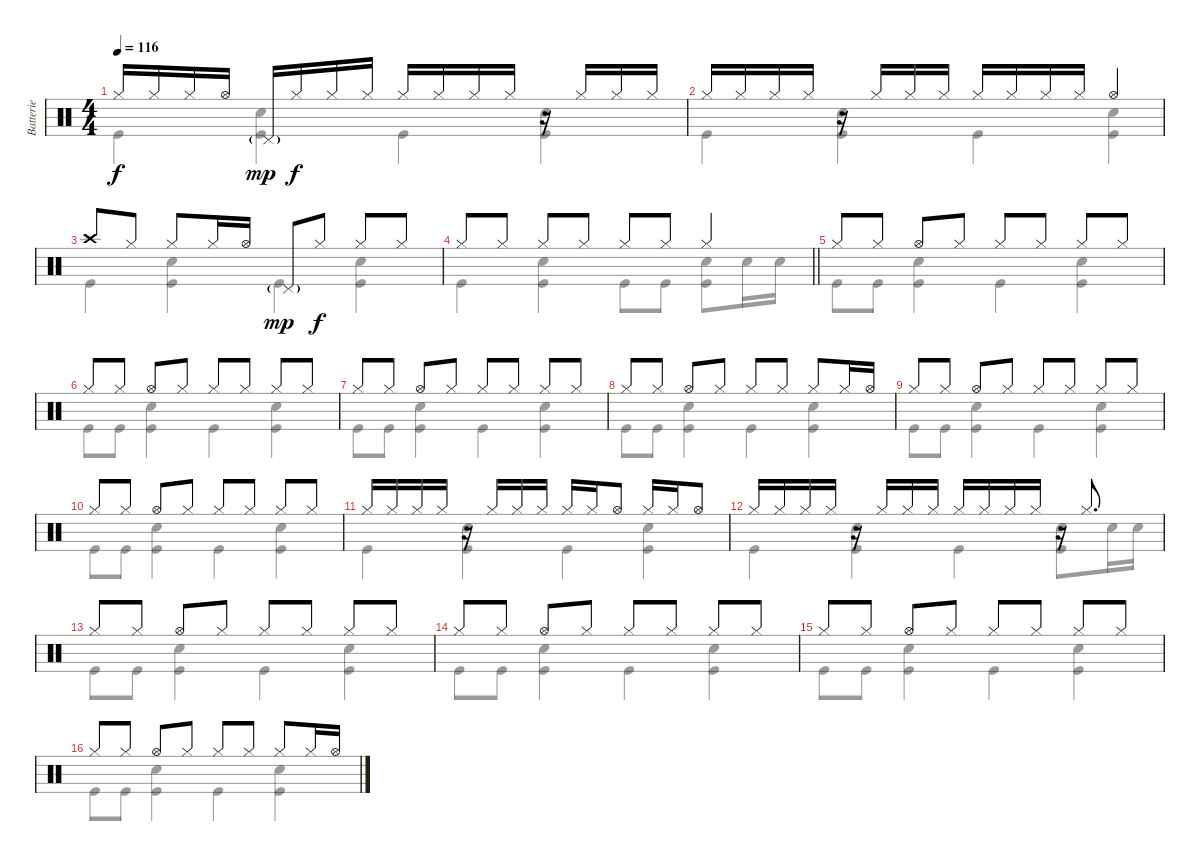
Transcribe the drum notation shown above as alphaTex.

\track ("Batterie" "Batterie") {instrument percussion}
\staff {score}
\articulation defaults
\voice
\ts (4 4)
\tempo 116
\clef neutral
\ks c "Hi-Hat (closed)".16{dy f} "Hi-Hat (closed)".16 "Hi-Hat (closed)".16 "Hi-Hat (open)".16 "Pedal Hi-Hat (hit)"{g}.16{dy mp} "Hi-Hat (closed)".16{dy f} "Hi-Hat (closed)".16 "Hi-Hat (closed)".16 "Hi-Hat (closed)".16 "Hi-Hat (closed)".16 "Hi-Hat (closed)".16 "Hi-Hat (closed)".16
r.16 "Hi-Hat (closed)".16 "Hi-Hat (closed)".16 "Hi-Hat (closed)".16 |
"Hi-Hat (closed)".16 "Hi-Hat (closed)".16 "Hi-Hat (closed)".16 "Hi-Hat (closed)".16 r.16 "Hi-Hat (closed)".16 "Hi-Hat (closed)".16 "Hi-Hat (closed)".16 "Hi-Hat (closed)".16 "Hi-Hat (closed)".16 "Hi-Hat (closed)".16 "Hi-Hat (closed)".16 "Hi-Hat (open)".4 |
"Crash high (hit)".8 "Hi-Hat (closed)".8 "Hi-Hat (closed)".8 "Hi-Hat (closed)".16 "Hi-Hat (open)".16 "Pedal Hi-Hat (hit)"{g}.8{dy mp} "Hi-Hat (closed)".8{dy f} "Hi-Hat (closed)".8 "Hi-Hat (closed)".8 |
\barLineRight lightlight "Hi-Hat (closed)".8 "Hi-Hat (closed)".8 "Hi-Hat (closed)".8 "Hi-Hat (closed)".8 "Hi-Hat (closed)".8 "Hi-Hat (closed)".8 "Hi-Hat (closed)".4
|
"Hi-Hat (closed)".8 "Hi-Hat (closed)".8 "Hi-Hat (open)".8 "Hi-Hat (closed)".8 "Hi-Hat (closed)".8 "Hi-Hat (closed)".8 "Hi-Hat (closed)".8 "Hi-Hat (closed)".8 |
"Hi-Hat (closed)".8 "Hi-Hat (closed)".8 "Hi-Hat (open)".8 "Hi-Hat (closed)".8 "Hi-Hat (closed)".8 "Hi-Hat (closed)".8 "Hi-Hat (closed)".8 "Hi-Hat (closed)".8 |
"Hi-Hat (closed)".8 "Hi-Hat (closed)".8 "Hi-Hat (open)".8 "Hi-Hat (closed)".8 "Hi-Hat (closed)".8 "Hi-Hat (closed)".8 "Hi-Hat (closed)".8 "Hi-Hat (closed)".8 |
"Hi-Hat (closed)".8 "Hi-Hat (closed)".8 "Hi-Hat (open)".8 "Hi-Hat (closed)".8 "Hi-Hat (closed)".8 "Hi-Hat (closed)".8 "Hi-Hat (closed)".8 "Hi-Hat (closed)".16 "Hi-Hat (open)".16 |
"Hi-Hat (closed)".8 "Hi-Hat (closed)".8 "Hi-Hat (open)".8 "Hi-Hat (closed)".8 "Hi-Hat (closed)".8 "Hi-Hat (closed)".8 "Hi-Hat (closed)".8 "Hi-Hat (closed)".8 |
"Hi-Hat (closed)".8 "Hi-Hat (closed)".8 "Hi-Hat (open)".8 "Hi-Hat (closed)".8 "Hi-Hat (closed)".8 "Hi-Hat (closed)".8 "Hi-Hat (closed)".8 "Hi-Hat (closed)".8 |
"Hi-Hat (closed)".16 "Hi-Hat (closed)".16 "Hi-Hat (closed)".16 "Hi-Hat (closed)".16 r.16 "Hi-Hat (closed)".16 "Hi-Hat (closed)".16 "Hi-Hat (closed)".16 "Hi-Hat (closed)".16 "Hi-Hat (closed)".16 "Hi-Hat (open)".8 "Hi-Hat (closed)".16 "Hi-Hat (closed)".16 "Hi-Hat (open)".8 |
"Hi-Hat (closed)".16 "Hi-Hat (closed)".16 "Hi-Hat (closed)".16 "Hi-Hat (closed)".16 r.16 "Hi-Hat (closed)".16 "Hi-Hat (closed)".16 "Hi-Hat (closed)".16 "Hi-Hat (closed)".16 "Hi-Hat (closed)".16 "Hi-Hat (closed)".16 "Hi-Hat (closed)".16 r.16 "Hi-Hat (closed)".8{d} |
"Hi-Hat (closed)".8 "Hi-Hat (closed)".8 "Hi-Hat (open)".8 "Hi-Hat (closed)".8 "Hi-Hat (closed)".8 "Hi-Hat (closed)".8 "Hi-Hat (closed)".8 "Hi-Hat (closed)".8 |
"Hi-Hat (closed)".8 "Hi-Hat (closed)".8 "Hi-Hat (open)".8 "Hi-Hat (closed)".8 "Hi-Hat (closed)".8 "Hi-Hat (closed)".8 "Hi-Hat (closed)".8 "Hi-Hat (closed)".8 |
"Hi-Hat (closed)".8 "Hi-Hat (closed)".8 "Hi-Hat (open)".8 "Hi-Hat (closed)".8 "Hi-Hat (closed)".8 "Hi-Hat (closed)".8 "Hi-Hat (closed)".8 "Hi-Hat (closed)".8 |
"Hi-Hat (closed)".8 "Hi-Hat (closed)".8 "Hi-Hat (open)".8 "Hi-Hat (closed)".8 "Hi-Hat (closed)".8 "Hi-Hat (closed)".8 "Hi-Hat (closed)".8 "Hi-Hat (closed)".16 "Hi-Hat (open)".16
\voice
\clef neutral
\ottava regular
\simile none
\ks c "Kick (hit)".4{dy f}
("Snare (hit) 2" "Kick (hit)").4 "Kick (hit)".4 ("Snare (hit) 2" "Kick (hit)").4 |
"Kick (hit)".4 ("Snare (hit) 2" "Kick (hit)").4 "Kick (hit)".4 ("Snare (hit) 2" "Kick (hit)").4 |
"Kick (hit)".4 ("Snare (hit) 2" "Kick (hit)").4 "Kick (hit)".4 ("Snare (hit) 2" "Kick (hit)").4 |
\barLineRight lightlight "Kick (hit)".4
("Snare (hit) 2" "Kick (hit)").4 "Kick (hit)".8 "Kick (hit)".8 ("Snare (hit) 2" "Kick (hit)").8 "Snare (hit) 2".16 "Snare (hit) 2".16 |
"Kick (hit)".8 "Kick (hit)".8 ("Snare (hit) 2" "Kick (hit)").4 "Kick (hit)".4 ("Snare (hit) 2" "Kick (hit)").4 |
"Kick (hit)".8 "Kick (hit)".8 ("Snare (hit) 2" "Kick (hit)").4 "Kick (hit)".4 ("Snare (hit) 2" "Kick (hit)").4 |
"Kick (hit)".8 "Kick (hit)".8 ("Snare (hit) 2" "Kick (hit)").4 "Kick (hit)".4 ("Snare (hit) 2" "Kick (hit)").4 |
"Kick (hit)".8 "Kick (hit)".8 ("Snare (hit) 2" "Kick (hit)").4 "Kick (hit)".4 ("Snare (hit) 2" "Kick (hit)").4 |
"Kick (hit)".8 "Kick (hit)".8 ("Snare (hit) 2" "Kick (hit)").4 "Kick (hit)".4 ("Snare (hit) 2" "Kick (hit)").4 |
"Kick (hit)".8 "Kick (hit)".8 ("Snare (hit) 2" "Kick (hit)").4 "Kick (hit)".4 ("Snare (hit) 2" "Kick (hit)").4 |
"Kick (hit)".4 ("Snare (hit) 2" "Kick (hit)").4 "Kick (hit)".4 ("Snare (hit) 2" "Kick (hit)").4 |
"Kick (hit)".4 ("Snare (hit) 2" "Kick (hit)").4 "Kick (hit)".4 ("Snare (hit) 2" "Kick (hit)").8 "Snare (hit) 2".16 "Snare (hit) 2".16 |
"Kick (hit)".8 "Kick (hit)".8 ("Snare (hit) 2" "Kick (hit)").4 "Kick (hit)".4 ("Snare (hit) 2" "Kick (hit)").4 |
"Kick (hit)".8 "Kick (hit)".8 ("Snare (hit) 2" "Kick (hit)").4 "Kick (hit)".4 ("Snare (hit) 2" "Kick (hit)").4 |
"Kick (hit)".8 "Kick (hit)".8 ("Snare (hit) 2" "Kick (hit)").4 "Kick (hit)".4 ("Snare (hit) 2" "Kick (hit)").4 |
"Kick (hit)".8 "Kick (hit)".8 ("Snare (hit) 2" "Kick (hit)").4 "Kick (hit)".4 ("Snare (hit) 2" "Kick (hit)").4
